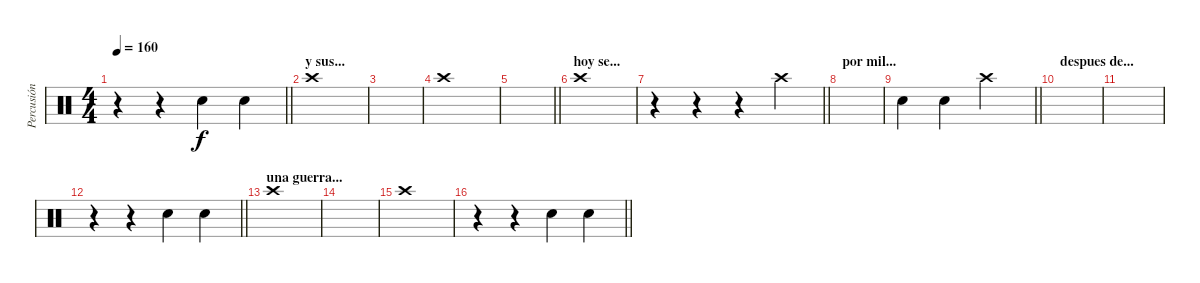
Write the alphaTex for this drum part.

\track ("Percusión" "Percusión") {instrument percussion}
\staff {score}
\articulation defaults
\ts (4 4)
\tempo 160
\clef neutral
\barLineRight lightlight
\ks c
r.4{dy f} r.4 "Snare (hit) 2".4 "Snare (hit) 2".4 |
\section ("" "y sus...")
"Crash high (hit)".1 |
|
"Crash high (hit)".1 |
\barLineRight lightlight
|
\section ("" "hoy se...")
"Crash high (hit)".1 |
\barLineRight lightlight
r.4 r.4 r.4 "Crash high (hit)".4 |
\section ("" "por mil...")
|
\barLineRight lightlight "Snare (hit) 2".4 "Snare (hit) 2".4 "Crash high (hit)".2
|
\section ("" "despues de...")
|
|
\barLineRight lightlight
r.4 r.4 "Snare (hit) 2".4 "Snare (hit) 2".4 |
\section ("" "una guerra...")
"Crash high (hit)".1 |
|
"Crash high (hit)".1 |
\barLineRight lightlight
r.4 r.4 "Snare (hit) 2".4 "Snare (hit) 2".4
